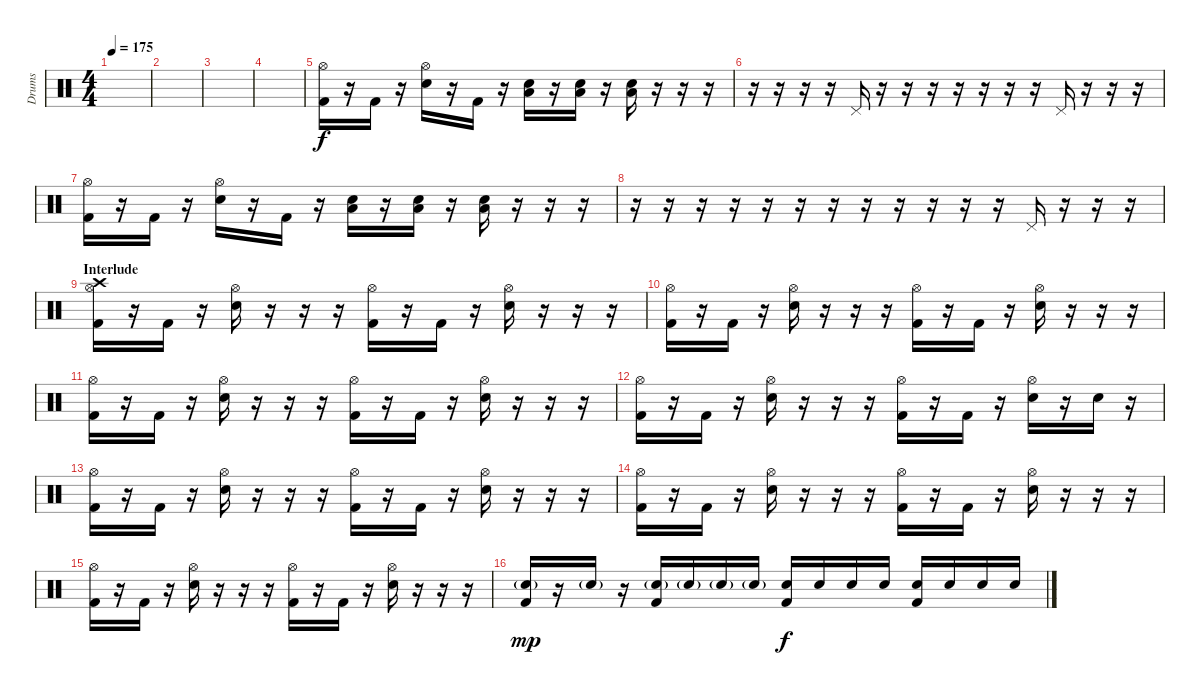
\track ("Drums" "Drums") {instrument percussion}
\staff {score}
\articulation defaults
\ts (4 4)
\tempo 175
\clef neutral
\ks c
|
|
|
|
("Hi-Hat (open)" "Kick (hit) 2").16 r.16 "Kick (hit) 2".16 r.16 ("Hi-Hat (open)" "Snare (hit) 2").16 r.16 "Kick (hit) 2".16 r.16 ("Low Floor Tom (hit)" "Snare (hit) 2").16 r.16 ("Low Floor Tom (hit)" "Snare (hit) 2").16 r.16 ("Low Floor Tom (hit)" "Snare (hit) 2").16 r.16 r.16 r.16 |
r.16 r.16 r.16 r.16 "Pedal Hi-Hat (hit)".16 r.16 r.16 r.16 r.16 r.16 r.16 r.16 "Pedal Hi-Hat (hit)".16 r.16 r.16 r.16 |
("Hi-Hat (open)" "Kick (hit) 2").16 r.16 "Kick (hit) 2".16 r.16 ("Hi-Hat (open)" "Snare (hit) 2").16 r.16 "Kick (hit) 2".16 r.16 ("Low Floor Tom (hit)" "Snare (hit) 2").16 r.16 ("Low Floor Tom (hit)" "Snare (hit) 2").16 r.16 ("Low Floor Tom (hit)" "Snare (hit) 2").16 r.16 r.16 r.16 |
r.16 r.16 r.16 r.16 r.16 r.16 r.16 r.16 r.16 r.16 r.16 r.16 "Pedal Hi-Hat (hit)".16 r.16 r.16 r.16 |
\section ("" "Interlude")
("Crash high (hit)" "Hi-Hat (open)" "Kick (hit) 2").16 r.16 "Kick (hit) 2".16 r.16 ("Hi-Hat (open)" "Snare (hit) 2").16 r.16 r.16 r.16 ("Hi-Hat (open)" "Kick (hit) 2").16 r.16 "Kick (hit) 2".16 r.16 ("Hi-Hat (open)" "Snare (hit) 2").16 r.16 r.16 r.16 |
("Hi-Hat (open)" "Kick (hit) 2").16 r.16 "Kick (hit) 2".16 r.16 ("Hi-Hat (open)" "Snare (hit) 2").16 r.16 r.16 r.16 ("Hi-Hat (open)" "Kick (hit) 2").16 r.16 "Kick (hit) 2".16 r.16 ("Hi-Hat (open)" "Snare (hit) 2").16 r.16 r.16 r.16 |
("Hi-Hat (open)" "Kick (hit) 2").16 r.16 "Kick (hit) 2".16 r.16 ("Hi-Hat (open)" "Snare (hit) 2").16 r.16 r.16 r.16 ("Hi-Hat (open)" "Kick (hit) 2").16 r.16 "Kick (hit) 2".16 r.16 ("Hi-Hat (open)" "Snare (hit) 2").16 r.16 r.16 r.16 |
("Hi-Hat (open)" "Kick (hit) 2").16 r.16 "Kick (hit) 2".16 r.16 ("Hi-Hat (open)" "Snare (hit) 2").16 r.16 r.16 r.16 ("Hi-Hat (open)" "Kick (hit) 2").16 r.16 "Kick (hit) 2".16 r.16 ("Hi-Hat (open)" "Snare (hit) 2").16 r.16 "Snare (hit) 2".16 r.16 |
("Hi-Hat (open)" "Kick (hit) 2").16 r.16 "Kick (hit) 2".16 r.16 ("Hi-Hat (open)" "Snare (hit) 2").16 r.16 r.16 r.16 ("Hi-Hat (open)" "Kick (hit) 2").16 r.16 "Kick (hit) 2".16 r.16 ("Hi-Hat (open)" "Snare (hit) 2").16 r.16 r.16 r.16 |
("Hi-Hat (open)" "Kick (hit) 2").16 r.16 "Kick (hit) 2".16 r.16 ("Hi-Hat (open)" "Snare (hit) 2").16 r.16 r.16 r.16 ("Hi-Hat (open)" "Kick (hit) 2").16 r.16 "Kick (hit) 2".16 r.16 ("Hi-Hat (open)" "Snare (hit) 2").16 r.16 r.16 r.16 |
("Hi-Hat (open)" "Kick (hit) 2").16 r.16 "Kick (hit) 2".16 r.16 ("Hi-Hat (open)" "Snare (hit) 2").16 r.16 r.16 r.16 ("Hi-Hat (open)" "Kick (hit) 2").16 r.16 "Kick (hit) 2".16 r.16 ("Hi-Hat (open)" "Snare (hit) 2").16 r.16 r.16 r.16 |
("Snare (hit) 2"{g} "Kick (hit) 2").16{dy mp} r.16 "Snare (hit) 2"{g}.16 r.16 ("Snare (hit) 2"{g} "Kick (hit) 2").16 "Snare (hit) 2"{g}.16 "Snare (hit) 2"{g}.16 "Snare (hit) 2"{g}.16 ("Snare (hit) 2" "Kick (hit) 2").16{dy f} "Snare (hit) 2".16 "Snare (hit) 2".16 "Snare (hit) 2".16 ("Snare (hit) 2" "Kick (hit) 2").16 "Snare (hit) 2".16 "Snare (hit) 2".16 "Snare (hit) 2".16
